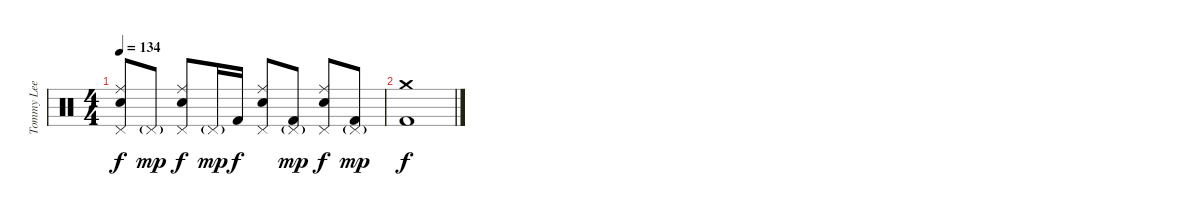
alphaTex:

\track ("Tommy Lee (Drums)" "Tommy Lee ") {instrument percussion}
\staff {score}
\articulation defaults
\ts (4 4)
\tempo 134
\clef neutral
\ks c
("Ride (middle)" "Electric Snare (hit)" "Pedal Hi-Hat (hit)").8{dy f} "Pedal Hi-Hat (hit)"{g}.8{dy mp} ("Ride (middle)" "Electric Snare (hit)" "Pedal Hi-Hat (hit)").8{dy f} "Pedal Hi-Hat (hit)"{g}.16{dy mp} "Kick (hit) 2".16{dy f} ("Ride (middle)" "Electric Snare (hit)" "Pedal Hi-Hat (hit)").8 ("Kick (hit) 2" "Pedal Hi-Hat (hit)"{g}).8{dy mp} ("Ride (middle)" "Electric Snare (hit)" "Pedal Hi-Hat (hit)").8{dy f} ("Kick (hit) 2" "Pedal Hi-Hat (hit)"{g}).8{dy mp} |
("Crash medium (hit)" "Kick (hit) 2").1{dy f}
